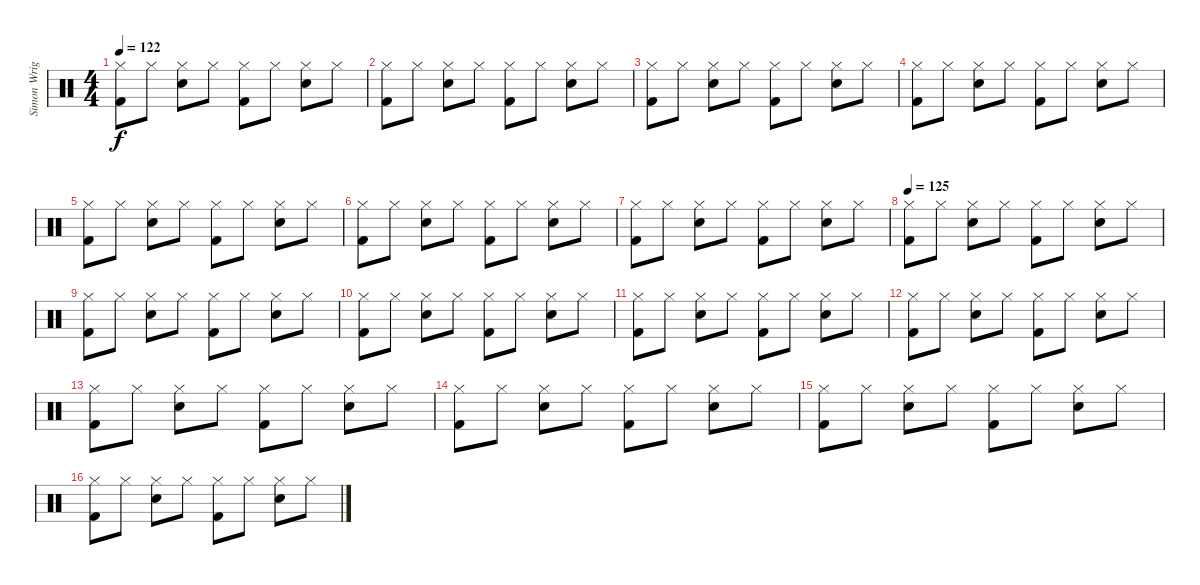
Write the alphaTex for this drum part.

\track ("Simon Wright" "Simon Wrig") {instrument percussion}
\staff {score}
\articulation defaults
\ts (4 4)
\tempo 122
\clef neutral
\ks c
("Hi-Hat (closed)" "Kick (hit) 2").8{dy f} "Hi-Hat (closed)".8 ("Hi-Hat (closed)" "Snare (hit) 2").8 "Hi-Hat (closed)".8 ("Hi-Hat (closed)" "Kick (hit) 2").8 "Hi-Hat (closed)".8 ("Hi-Hat (closed)" "Snare (hit) 2").8 "Hi-Hat (closed)".8 |
("Hi-Hat (closed)" "Kick (hit) 2").8 "Hi-Hat (closed)".8 ("Hi-Hat (closed)" "Snare (hit) 2").8 "Hi-Hat (closed)".8 ("Hi-Hat (closed)" "Kick (hit) 2").8 "Hi-Hat (closed)".8 ("Hi-Hat (closed)" "Snare (hit) 2").8 "Hi-Hat (closed)".8 |
("Hi-Hat (closed)" "Kick (hit) 2").8 "Hi-Hat (closed)".8 ("Hi-Hat (closed)" "Snare (hit) 2").8 "Hi-Hat (closed)".8 ("Hi-Hat (closed)" "Kick (hit) 2").8 "Hi-Hat (closed)".8 ("Hi-Hat (closed)" "Snare (hit) 2").8 "Hi-Hat (closed)".8 |
("Hi-Hat (closed)" "Kick (hit) 2").8 "Hi-Hat (closed)".8 ("Hi-Hat (closed)" "Snare (hit) 2").8 "Hi-Hat (closed)".8 ("Hi-Hat (closed)" "Kick (hit) 2").8 "Hi-Hat (closed)".8 ("Hi-Hat (closed)" "Snare (hit) 2").8 "Hi-Hat (closed)".8 |
("Hi-Hat (closed)" "Kick (hit) 2").8 "Hi-Hat (closed)".8 ("Hi-Hat (closed)" "Snare (hit) 2").8 "Hi-Hat (closed)".8 ("Hi-Hat (closed)" "Kick (hit) 2").8 "Hi-Hat (closed)".8 ("Hi-Hat (closed)" "Snare (hit) 2").8 "Hi-Hat (closed)".8 |
("Hi-Hat (closed)" "Kick (hit) 2").8 "Hi-Hat (closed)".8 ("Hi-Hat (closed)" "Snare (hit) 2").8 "Hi-Hat (closed)".8 ("Hi-Hat (closed)" "Kick (hit) 2").8 "Hi-Hat (closed)".8 ("Hi-Hat (closed)" "Snare (hit) 2").8 "Hi-Hat (closed)".8 |
("Hi-Hat (closed)" "Kick (hit) 2").8 "Hi-Hat (closed)".8 ("Hi-Hat (closed)" "Snare (hit) 2").8 "Hi-Hat (closed)".8 ("Hi-Hat (closed)" "Kick (hit) 2").8 "Hi-Hat (closed)".8 ("Hi-Hat (closed)" "Snare (hit) 2").8 "Hi-Hat (closed)".8 |
\tempo 125
("Hi-Hat (closed)" "Kick (hit) 2").8 "Hi-Hat (closed)".8 ("Hi-Hat (closed)" "Snare (hit) 2").8 "Hi-Hat (closed)".8 ("Hi-Hat (closed)" "Kick (hit) 2").8 "Hi-Hat (closed)".8 ("Hi-Hat (closed)" "Snare (hit) 2").8 "Hi-Hat (closed)".8 |
("Hi-Hat (closed)" "Kick (hit) 2").8 "Hi-Hat (closed)".8 ("Hi-Hat (closed)" "Snare (hit) 2").8 "Hi-Hat (closed)".8 ("Hi-Hat (closed)" "Kick (hit) 2").8 "Hi-Hat (closed)".8 ("Hi-Hat (closed)" "Snare (hit) 2").8 "Hi-Hat (closed)".8 |
("Hi-Hat (closed)" "Kick (hit) 2").8 "Hi-Hat (closed)".8 ("Hi-Hat (closed)" "Snare (hit) 2").8 "Hi-Hat (closed)".8 ("Hi-Hat (closed)" "Kick (hit) 2").8 "Hi-Hat (closed)".8 ("Hi-Hat (closed)" "Snare (hit) 2").8 "Hi-Hat (closed)".8 |
("Hi-Hat (closed)" "Kick (hit) 2").8 "Hi-Hat (closed)".8 ("Hi-Hat (closed)" "Snare (hit) 2").8 "Hi-Hat (closed)".8 ("Hi-Hat (closed)" "Kick (hit) 2").8 "Hi-Hat (closed)".8 ("Hi-Hat (closed)" "Snare (hit) 2").8 "Hi-Hat (closed)".8 |
("Hi-Hat (closed)" "Kick (hit) 2").8 "Hi-Hat (closed)".8 ("Hi-Hat (closed)" "Snare (hit) 2").8 "Hi-Hat (closed)".8 ("Hi-Hat (closed)" "Kick (hit) 2").8 "Hi-Hat (closed)".8 ("Hi-Hat (closed)" "Snare (hit) 2").8 "Hi-Hat (closed)".8 |
("Hi-Hat (closed)" "Kick (hit) 2").8 "Hi-Hat (closed)".8 ("Hi-Hat (closed)" "Snare (hit) 2").8 "Hi-Hat (closed)".8 ("Hi-Hat (closed)" "Kick (hit) 2").8 "Hi-Hat (closed)".8 ("Hi-Hat (closed)" "Snare (hit) 2").8 "Hi-Hat (closed)".8 |
("Hi-Hat (closed)" "Kick (hit) 2").8 "Hi-Hat (closed)".8 ("Hi-Hat (closed)" "Snare (hit) 2").8 "Hi-Hat (closed)".8 ("Hi-Hat (closed)" "Kick (hit) 2").8 "Hi-Hat (closed)".8 ("Hi-Hat (closed)" "Snare (hit) 2").8 "Hi-Hat (closed)".8 |
("Hi-Hat (closed)" "Kick (hit) 2").8 "Hi-Hat (closed)".8 ("Hi-Hat (closed)" "Snare (hit) 2").8 "Hi-Hat (closed)".8 ("Hi-Hat (closed)" "Kick (hit) 2").8 "Hi-Hat (closed)".8 ("Hi-Hat (closed)" "Snare (hit) 2").8 "Hi-Hat (closed)".8 |
("Hi-Hat (closed)" "Kick (hit) 2").8 "Hi-Hat (closed)".8 ("Hi-Hat (closed)" "Snare (hit) 2").8 "Hi-Hat (closed)".8 ("Hi-Hat (closed)" "Kick (hit) 2").8 "Hi-Hat (closed)".8 ("Hi-Hat (closed)" "Snare (hit) 2").8 "Hi-Hat (closed)".8
